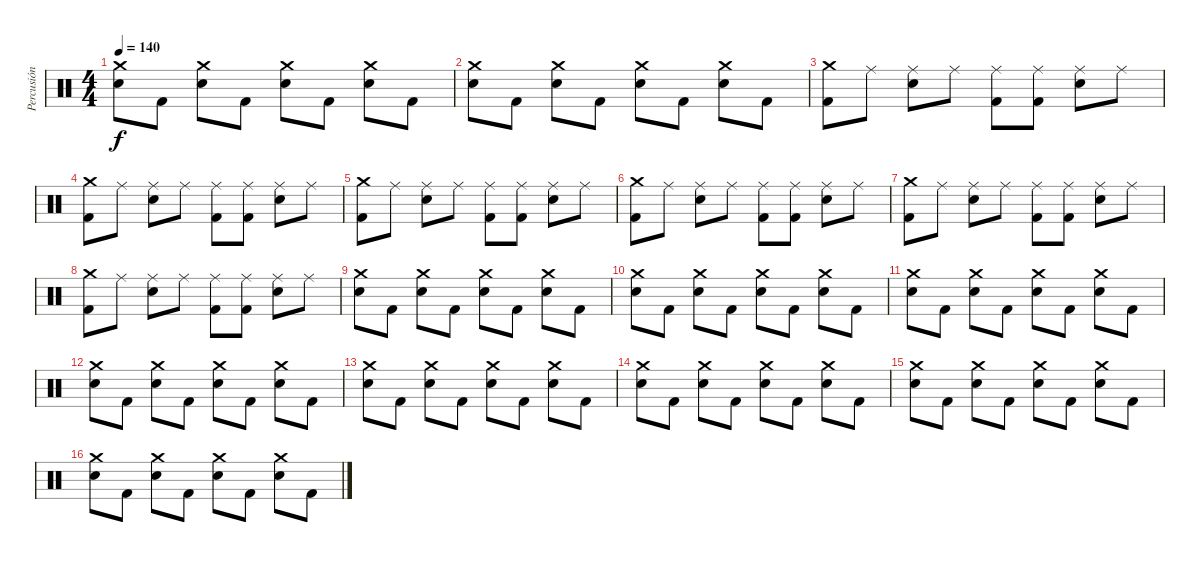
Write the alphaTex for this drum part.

\track ("Percusión" "Percusión") {instrument percussion}
\staff {score}
\articulation defaults
\ts (4 4)
\tempo 140
\clef neutral
\ks c
("Crash medium (hit)" "Snare (hit) 2").8{dy f} "Kick (hit) 2".8 ("Crash medium (hit)" "Snare (hit) 2").8 "Kick (hit) 2".8 ("Crash medium (hit)" "Snare (hit) 2").8 "Kick (hit) 2".8 ("Crash medium (hit)" "Snare (hit) 2").8 "Kick (hit) 2".8 |
("Crash medium (hit)" "Snare (hit) 2").8 "Kick (hit) 2".8 ("Crash medium (hit)" "Snare (hit) 2").8 "Kick (hit) 2".8 ("Crash medium (hit)" "Snare (hit) 2").8 "Kick (hit) 2".8 ("Crash medium (hit)" "Snare (hit) 2").8 "Kick (hit) 2".8 |
("Crash medium (hit)" "Kick (hit) 2").8 "Ride (middle)".8 ("Ride (middle)" "Snare (hit) 2").8 "Ride (middle)".8 ("Ride (middle)" "Kick (hit) 2").8 ("Ride (middle)" "Kick (hit) 2").8 ("Ride (middle)" "Snare (hit) 2").8 "Ride (middle)".8 |
("Crash medium (hit)" "Kick (hit) 2").8 "Ride (middle)".8 ("Ride (middle)" "Snare (hit) 2").8 "Ride (middle)".8 ("Ride (middle)" "Kick (hit) 2").8 ("Ride (middle)" "Kick (hit) 2").8 ("Ride (middle)" "Snare (hit) 2").8 "Ride (middle)".8 |
("Crash medium (hit)" "Kick (hit) 2").8 "Ride (middle)".8 ("Ride (middle)" "Snare (hit) 2").8 "Ride (middle)".8 ("Ride (middle)" "Kick (hit) 2").8 ("Ride (middle)" "Kick (hit) 2").8 ("Ride (middle)" "Snare (hit) 2").8 "Ride (middle)".8 |
("Crash medium (hit)" "Kick (hit) 2").8 "Ride (middle)".8 ("Ride (middle)" "Snare (hit) 2").8 "Ride (middle)".8 ("Ride (middle)" "Kick (hit) 2").8 ("Ride (middle)" "Kick (hit) 2").8 ("Ride (middle)" "Snare (hit) 2").8 "Ride (middle)".8 |
("Crash medium (hit)" "Kick (hit) 2").8 "Ride (middle)".8 ("Ride (middle)" "Snare (hit) 2").8 "Ride (middle)".8 ("Ride (middle)" "Kick (hit) 2").8 ("Ride (middle)" "Kick (hit) 2").8 ("Ride (middle)" "Snare (hit) 2").8 "Ride (middle)".8 |
("Crash medium (hit)" "Kick (hit) 2").8 "Ride (middle)".8 ("Ride (middle)" "Snare (hit) 2").8 "Ride (middle)".8 ("Ride (middle)" "Kick (hit) 2").8 ("Ride (middle)" "Kick (hit) 2").8 ("Ride (middle)" "Snare (hit) 2").8 "Ride (middle)".8 |
("Crash medium (hit)" "Snare (hit) 2").8 "Kick (hit) 2".8 ("Crash medium (hit)" "Snare (hit) 2").8 "Kick (hit) 2".8 ("Crash medium (hit)" "Snare (hit) 2").8 "Kick (hit) 2".8 ("Crash medium (hit)" "Snare (hit) 2").8 "Kick (hit) 2".8 |
("Crash medium (hit)" "Snare (hit) 2").8 "Kick (hit) 2".8 ("Crash medium (hit)" "Snare (hit) 2").8 "Kick (hit) 2".8 ("Crash medium (hit)" "Snare (hit) 2").8 "Kick (hit) 2".8 ("Crash medium (hit)" "Snare (hit) 2").8 "Kick (hit) 2".8 |
("Crash medium (hit)" "Snare (hit) 2").8 "Kick (hit) 2".8 ("Crash medium (hit)" "Snare (hit) 2").8 "Kick (hit) 2".8 ("Crash medium (hit)" "Snare (hit) 2").8 "Kick (hit) 2".8 ("Crash medium (hit)" "Snare (hit) 2").8 "Kick (hit) 2".8 |
("Crash medium (hit)" "Snare (hit) 2").8 "Kick (hit) 2".8 ("Crash medium (hit)" "Snare (hit) 2").8 "Kick (hit) 2".8 ("Crash medium (hit)" "Snare (hit) 2").8 "Kick (hit) 2".8 ("Crash medium (hit)" "Snare (hit) 2").8 "Kick (hit) 2".8 |
("Crash medium (hit)" "Snare (hit) 2").8 "Kick (hit) 2".8 ("Crash medium (hit)" "Snare (hit) 2").8 "Kick (hit) 2".8 ("Crash medium (hit)" "Snare (hit) 2").8 "Kick (hit) 2".8 ("Crash medium (hit)" "Snare (hit) 2").8 "Kick (hit) 2".8 |
("Crash medium (hit)" "Snare (hit) 2").8 "Kick (hit) 2".8 ("Crash medium (hit)" "Snare (hit) 2").8 "Kick (hit) 2".8 ("Crash medium (hit)" "Snare (hit) 2").8 "Kick (hit) 2".8 ("Crash medium (hit)" "Snare (hit) 2").8 "Kick (hit) 2".8 |
("Crash medium (hit)" "Snare (hit) 2").8 "Kick (hit) 2".8 ("Crash medium (hit)" "Snare (hit) 2").8 "Kick (hit) 2".8 ("Crash medium (hit)" "Snare (hit) 2").8 "Kick (hit) 2".8 ("Crash medium (hit)" "Snare (hit) 2").8 "Kick (hit) 2".8 |
("Crash medium (hit)" "Snare (hit) 2").8 "Kick (hit) 2".8 ("Crash medium (hit)" "Snare (hit) 2").8 "Kick (hit) 2".8 ("Crash medium (hit)" "Snare (hit) 2").8 "Kick (hit) 2".8 ("Crash medium (hit)" "Snare (hit) 2").8 "Kick (hit) 2".8
